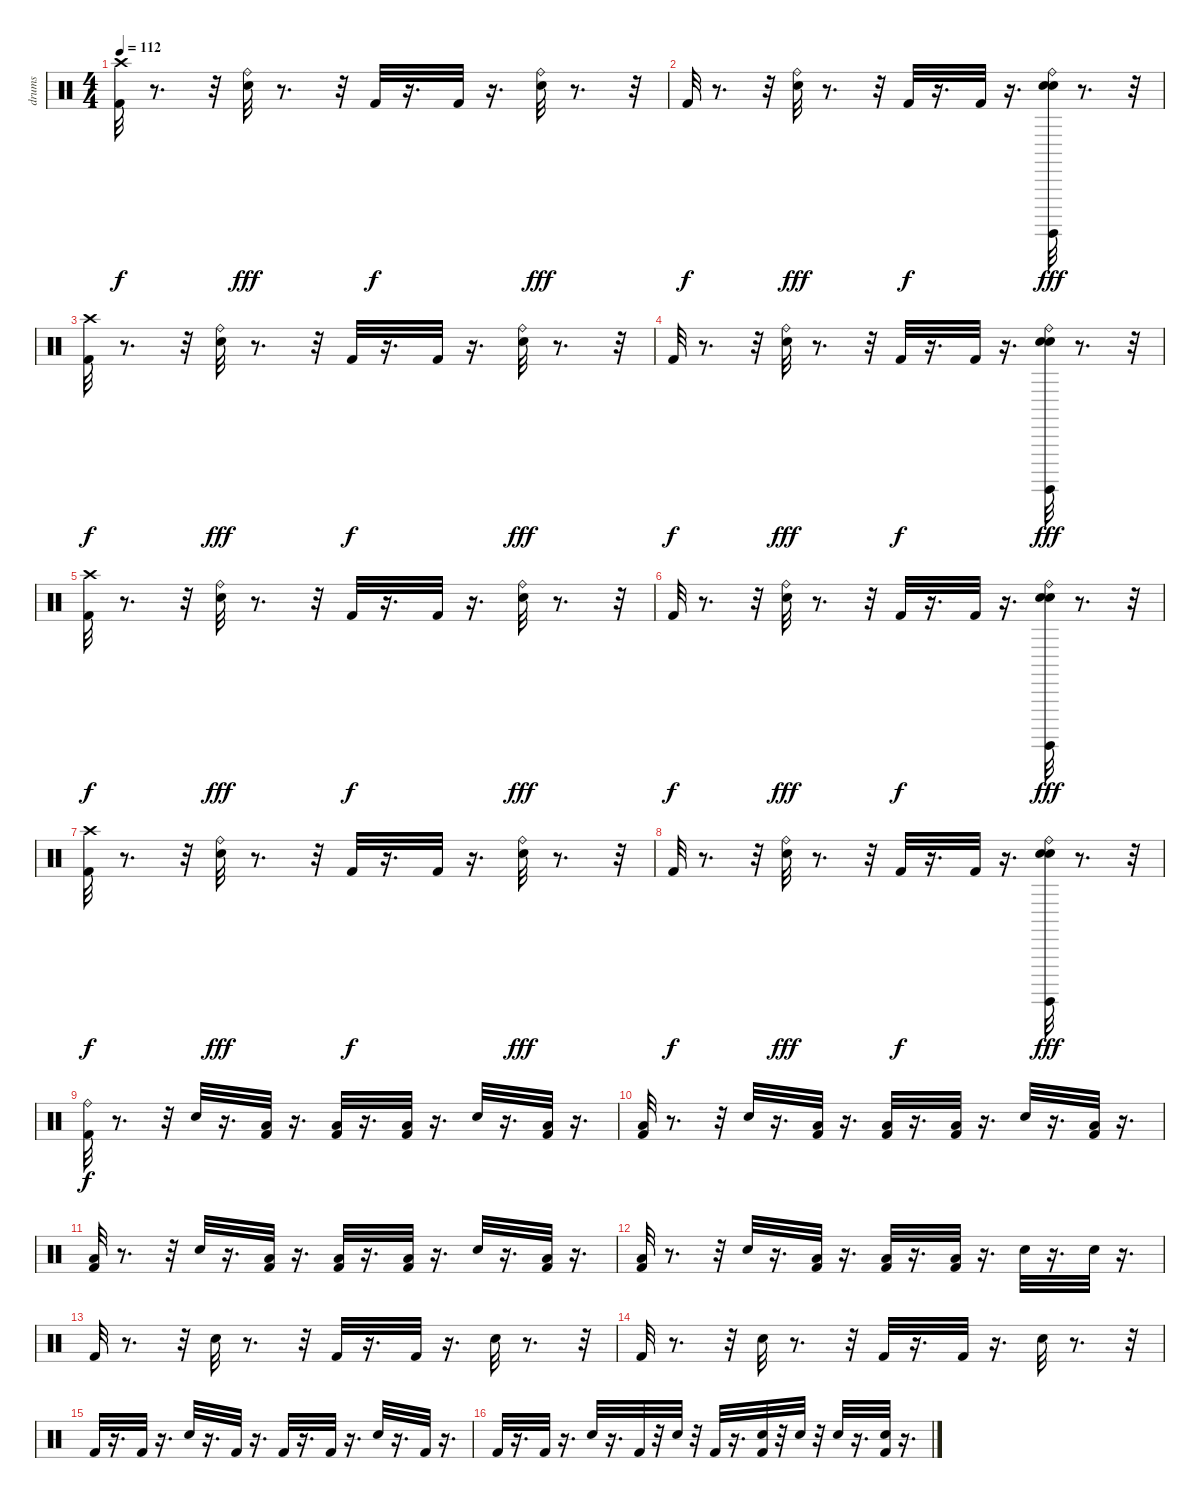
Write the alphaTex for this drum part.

\track ("drums" "drums") {instrument percussion}
\staff {score}
\articulation defaults
\ts (4 4)
\tempo 112
\clef neutral
\ks c
("Kick (hit) 2" "Crash high (hit)").32{dy f} r.8{d} r.32 ("Snare (hit) 2" "Ride (bell)").32{dy fff} r.8{d} r.32 "Kick (hit) 2".32{dy f} r.16{d} "Kick (hit) 2".32 r.16{d} ("Snare (hit) 2" "Ride (bell)").32{dy fff} r.8{d} r.32 |
"Kick (hit) 2".32{dy f} r.8{d} r.32 ("Snare (hit) 2" "Ride (bell)").32{dy fff} r.8{d} r.32 "Kick (hit) 2".32{dy f} r.16{d} "Kick (hit) 2".32 r.16{d} ("Surdo (hit)" "Ride (bell)" "Electric Snare (hit)" "Snare (hit) 2").32{dy fff} r.8{d} r.32 |
("Kick (hit) 2" "Crash high (hit)").32{dy f} r.8{d} r.32 ("Snare (hit) 2" "Ride (bell)").32{dy fff} r.8{d} r.32 "Kick (hit) 2".32{dy f} r.16{d} "Kick (hit) 2".32 r.16{d} ("Snare (hit) 2" "Ride (bell)").32{dy fff} r.8{d} r.32 |
"Kick (hit) 2".32{dy f} r.8{d} r.32 ("Snare (hit) 2" "Ride (bell)").32{dy fff} r.8{d} r.32 "Kick (hit) 2".32{dy f} r.16{d} "Kick (hit) 2".32 r.16{d} ("Surdo (hit)" "Ride (bell)" "Electric Snare (hit)" "Snare (hit) 2").32{dy fff} r.8{d} r.32 |
("Kick (hit) 2" "Crash high (hit)").32{dy f} r.8{d} r.32 ("Snare (hit) 2" "Ride (bell)").32{dy fff} r.8{d} r.32 "Kick (hit) 2".32{dy f} r.16{d} "Kick (hit) 2".32 r.16{d} ("Snare (hit) 2" "Ride (bell)").32{dy fff} r.8{d} r.32 |
"Kick (hit) 2".32{dy f} r.8{d} r.32 ("Snare (hit) 2" "Ride (bell)").32{dy fff} r.8{d} r.32 "Kick (hit) 2".32{dy f} r.16{d} "Kick (hit) 2".32 r.16{d} ("Surdo (hit)" "Ride (bell)" "Electric Snare (hit)" "Snare (hit) 2").32{dy fff} r.8{d} r.32 |
("Kick (hit) 2" "Crash high (hit)").32{dy f} r.8{d} r.32 ("Snare (hit) 2" "Ride (bell)").32{dy fff} r.8{d} r.32 "Kick (hit) 2".32{dy f} r.16{d} "Kick (hit) 2".32 r.16{d} ("Snare (hit) 2" "Ride (bell)").32{dy fff} r.8{d} r.32 |
"Kick (hit) 2".32{dy f} r.8{d} r.32 ("Snare (hit) 2" "Ride (bell)").32{dy fff} r.8{d} r.32 "Kick (hit) 2".32{dy f} r.16{d} "Kick (hit) 2".32 r.16{d} ("Surdo (hit)" "Ride (bell)" "Electric Snare (hit)" "Snare (hit) 2").32{dy fff} r.8{d} r.32 |
("Ride (bell)" "Kick (hit) 2").32{dy f} r.8{d} r.32 "Snare (hit) 2".32 r.16{d} ("Kick (hit) 2" "Low Floor Tom (hit)").32 r.16{d} ("Kick (hit) 2" "Low Floor Tom (hit)").32 r.16{d} ("Low Floor Tom (hit)" "Kick (hit) 2").32 r.16{d} "Snare (hit) 2".32 r.16{d} ("Low Floor Tom (hit)" "Kick (hit) 2").32 r.16{d} |
("Low Floor Tom (hit)" "Kick (hit) 2").32 r.8{d} r.32 "Snare (hit) 2".32 r.16{d} ("Kick (hit) 2" "Low Floor Tom (hit)").32 r.16{d} ("Kick (hit) 2" "Low Floor Tom (hit)").32 r.16{d} ("Low Floor Tom (hit)" "Kick (hit) 2").32 r.16{d} "Snare (hit) 2".32 r.16{d} ("Low Floor Tom (hit)" "Kick (hit) 2").32 r.16{d} |
("Low Floor Tom (hit)" "Kick (hit) 2").32 r.8{d} r.32 "Snare (hit) 2".32 r.16{d} ("Kick (hit) 2" "Low Floor Tom (hit)").32 r.16{d} ("Kick (hit) 2" "Low Floor Tom (hit)").32 r.16{d} ("Low Floor Tom (hit)" "Kick (hit) 2").32 r.16{d} "Snare (hit) 2".32 r.16{d} ("Low Floor Tom (hit)" "Kick (hit) 2").32 r.16{d} |
("Low Floor Tom (hit)" "Kick (hit) 2").32 r.8{d} r.32 "Snare (hit) 2".32 r.16{d} ("Kick (hit) 2" "Low Floor Tom (hit)").32 r.16{d} ("Kick (hit) 2" "Low Floor Tom (hit)").32 r.16{d} ("Low Floor Tom (hit)" "Kick (hit) 2").32 r.16{d} "Snare (hit) 2".32 r.16{d} "Snare (hit) 2".32 r.16{d} |
"Kick (hit) 2".32 r.8{d} r.32 "Snare (hit) 2".32 r.8{d} r.32 "Kick (hit) 2".32 r.16{d} "Kick (hit) 2".32 r.16{d} "Snare (hit) 2".32 r.8{d} r.32 |
"Kick (hit) 2".32 r.8{d} r.32 "Snare (hit) 2".32 r.8{d} r.32 "Kick (hit) 2".32 r.16{d} "Kick (hit) 2".32 r.16{d} "Snare (hit) 2".32 r.8{d} r.32 |
"Kick (hit) 2".32 r.16{d} "Kick (hit) 2".32 r.16{d} "Snare (hit) 2".32 r.16{d} "Kick (hit) 2".32 r.16{d} "Kick (hit) 2".32 r.16{d} "Kick (hit) 2".32 r.16{d} "Snare (hit) 2".32 r.16{d} "Kick (hit) 2".32 r.16{d} |
"Kick (hit) 2".32 r.16{d} "Kick (hit) 2".32 r.16{d} "Snare (hit) 2".32 r.16{d} "Kick (hit) 2".32 r.32 "Snare (hit) 2".32 r.32 "Kick (hit) 2".32 r.16{d} ("Snare (hit) 2" "Kick (hit) 2").32 r.32 "Snare (hit) 2".32 r.32 "Snare (hit) 2".32 r.16{d} ("Snare (hit) 2" "Kick (hit) 2").32 r.16{d}
